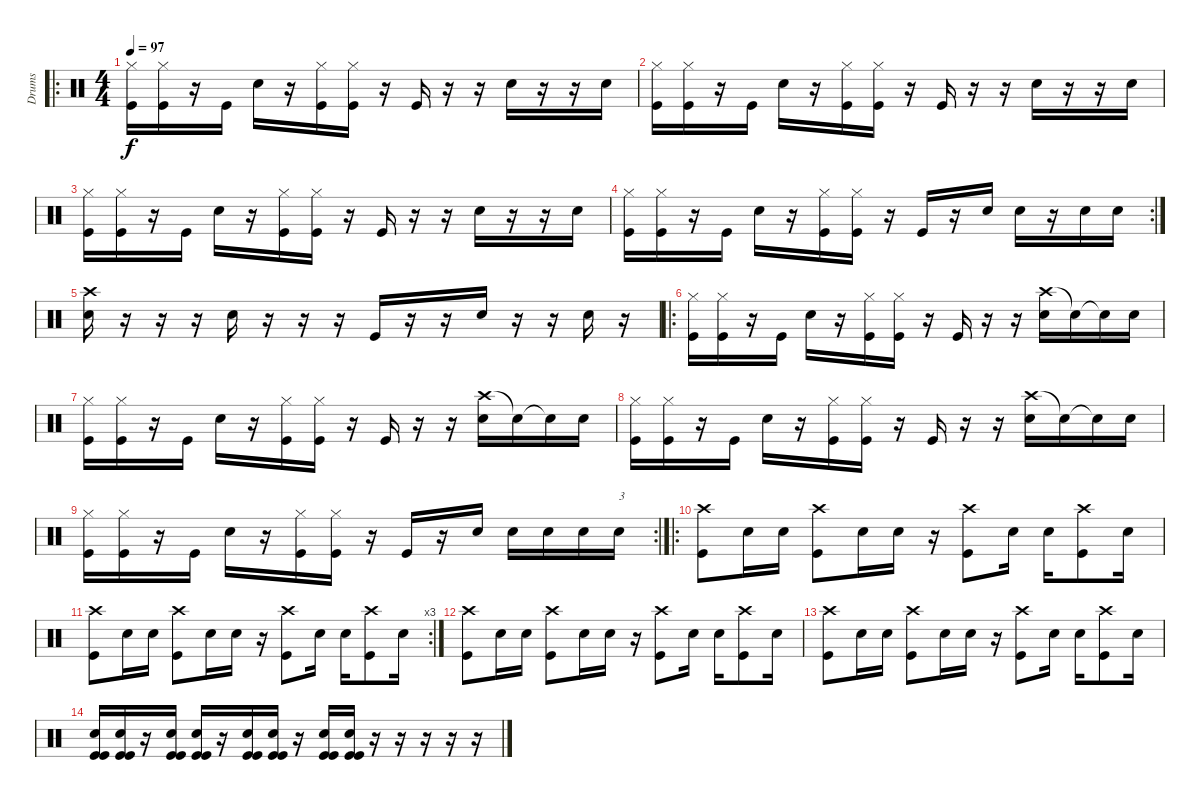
\track ("Drums" "Drums") {instrument percussion}
\staff {score}
\articulation defaults
\ro
\ts (4 4)
\tempo 97
\clef neutral
\ks c
("Kick (hit)" "Hi-Hat (closed)").16{dy f} ("Kick (hit)" "Hi-Hat (closed)").16 r.16 "Kick (hit)".16 "Snare (hit) 2".16 r.16 ("Kick (hit)" "Hi-Hat (closed)").16 ("Kick (hit)" "Hi-Hat (closed)").16 r.16 "Kick (hit)".16 r.16 r.16 "Snare (hit) 2".16 r.16 r.16 "Snare (hit) 2".16 |
("Kick (hit)" "Hi-Hat (closed)").16 ("Kick (hit)" "Hi-Hat (closed)").16 r.16 "Kick (hit)".16 "Snare (hit) 2".16 r.16 ("Kick (hit)" "Hi-Hat (closed)").16 ("Kick (hit)" "Hi-Hat (closed)").16 r.16 "Kick (hit)".16 r.16 r.16 "Snare (hit) 2".16 r.16 r.16 "Snare (hit) 2".16 |
("Kick (hit)" "Hi-Hat (closed)").16 ("Kick (hit)" "Hi-Hat (closed)").16 r.16 "Kick (hit)".16 "Snare (hit) 2".16 r.16 ("Kick (hit)" "Hi-Hat (closed)").16 ("Kick (hit)" "Hi-Hat (closed)").16 r.16 "Kick (hit)".16 r.16 r.16 "Snare (hit) 2".16 r.16 r.16 "Snare (hit) 2".16 |
\rc 2
("Kick (hit)" "Hi-Hat (closed)").16 ("Kick (hit)" "Hi-Hat (closed)").16 r.16 "Kick (hit)".16 "Snare (hit) 2".16 r.16 ("Kick (hit)" "Hi-Hat (closed)").16 ("Kick (hit)" "Hi-Hat (closed)").16 r.16 "Kick (hit)".16 r.16 "Snare (hit) 2".16 "Snare (hit) 2".16 r.16 "Snare (hit) 2".16 "Snare (hit) 2".16 |
("Crash high (hit)" "Snare (hit) 2").16 r.16 r.16 r.16 "Snare (hit) 2".16 r.16 r.16 r.16 "Kick (hit)".16 r.16 r.16 "Snare (hit) 2".16 r.16 r.16 "Snare (hit) 2".16 r.16 |
\ro
("Kick (hit)" "Hi-Hat (closed)").16 ("Kick (hit)" "Hi-Hat (closed)").16 r.16 "Kick (hit)".16 "Snare (hit) 2".16 r.16 ("Kick (hit)" "Hi-Hat (closed)").16 ("Kick (hit)" "Hi-Hat (closed)").16 r.16 "Kick (hit)".16 r.16 r.16 ("Crash high (hit)" "Snare (hit) 2").16 "Snare (hit)"{t}.16 "Snare (hit)"{t}.16 "Snare (hit) 2".16 |
("Kick (hit)" "Hi-Hat (closed)").16 ("Kick (hit)" "Hi-Hat (closed)").16 r.16 "Kick (hit)".16 "Snare (hit) 2".16 r.16 ("Kick (hit)" "Hi-Hat (closed)").16 ("Kick (hit)" "Hi-Hat (closed)").16 r.16 "Kick (hit)".16 r.16 r.16 ("Crash high (hit)" "Snare (hit) 2").16 "Snare (hit)"{t}.16 "Snare (hit)"{t}.16 "Snare (hit) 2".16 |
("Kick (hit)" "Hi-Hat (closed)").16 ("Kick (hit)" "Hi-Hat (closed)").16 r.16 "Kick (hit)".16 "Snare (hit) 2".16 r.16 ("Kick (hit)" "Hi-Hat (closed)").16 ("Kick (hit)" "Hi-Hat (closed)").16 r.16 "Kick (hit)".16 r.16 r.16 ("Crash high (hit)" "Snare (hit) 2").16 "Snare (hit)"{t}.16 "Snare (hit)"{t}.16 "Snare (hit) 2".16 |
\rc 2
("Kick (hit)" "Hi-Hat (closed)").16 ("Kick (hit)" "Hi-Hat (closed)").16 r.16 "Kick (hit)".16 "Snare (hit) 2".16 r.16 ("Kick (hit)" "Hi-Hat (closed)").16 ("Kick (hit)" "Hi-Hat (closed)").16 r.16 "Kick (hit)".16 r.16 "Snare (hit) 2".16 "Snare (hit) 2".16 "Snare (hit) 2".16 "Snare (hit) 2".16 "Snare (hit) 2".16{txt "3"} |
\ro
("Kick (hit)" "Crash high (hit)").8 "Snare (hit) 2".16 "Snare (hit) 2".16 ("Kick (hit)" "Crash high (hit)").8 "Snare (hit) 2".16 "Snare (hit) 2".16 r.16 ("Kick (hit)" "Crash high (hit)").8 "Snare (hit) 2".16 "Snare (hit) 2".16 ("Kick (hit)" "Crash high (hit)").8 "Snare (hit) 2".16 |
\rc 3
("Kick (hit)" "Crash high (hit)").8 "Snare (hit) 2".16 "Snare (hit) 2".16 ("Kick (hit)" "Crash high (hit)").8 "Snare (hit) 2".16 "Snare (hit) 2".16 r.16 ("Kick (hit)" "Crash high (hit)").8 "Snare (hit) 2".16 "Snare (hit) 2".16 ("Kick (hit)" "Crash high (hit)").8 "Snare (hit) 2".16 |
("Kick (hit)" "Crash high (hit)").8 "Snare (hit) 2".16 "Snare (hit) 2".16 ("Kick (hit)" "Crash high (hit)").8 "Snare (hit) 2".16 "Snare (hit) 2".16 r.16 ("Kick (hit)" "Crash high (hit)").8 "Snare (hit) 2".16 "Snare (hit) 2".16 ("Kick (hit)" "Crash high (hit)").8 "Snare (hit) 2".16 |
("Kick (hit)" "Crash high (hit)").8 "Snare (hit) 2".16 "Snare (hit) 2".16 ("Kick (hit)" "Crash high (hit)").8 "Snare (hit) 2".16 "Snare (hit) 2".16 r.16 ("Kick (hit)" "Crash high (hit)").8 "Snare (hit) 2".16 "Snare (hit) 2".16 ("Kick (hit)" "Crash high (hit)").8 "Snare (hit) 2".16 |
("Kick (hit)" "Kick (hit)" "Snare (hit) 2").16 ("Kick (hit)" "Kick (hit)" "Snare (hit) 2").16 r.16 ("Kick (hit)" "Kick (hit)" "Snare (hit) 2").16 ("Kick (hit)" "Kick (hit)" "Snare (hit) 2").16 r.16 ("Kick (hit)" "Kick (hit)" "Snare (hit) 2").16 ("Kick (hit)" "Kick (hit)" "Snare (hit) 2").16 r.16 ("Kick (hit)" "Kick (hit)" "Snare (hit) 2").16 ("Kick (hit)" "Kick (hit)" "Snare (hit) 2").16 r.16 r.16 r.16 r.16 r.16
